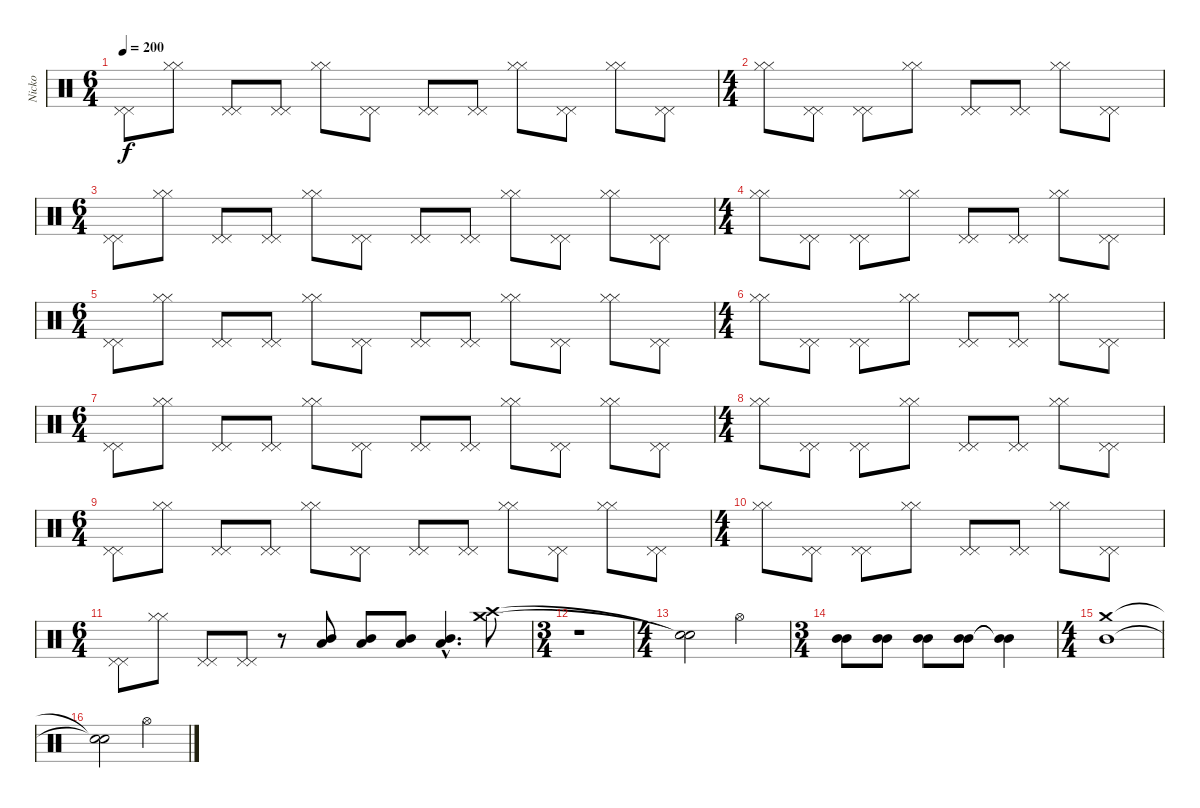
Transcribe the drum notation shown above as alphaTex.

\track ("Nicko" "Nicko") {instrument percussion}
\staff {score}
\articulation defaults
\ts (6 4)
\tempo 200
\clef neutral
\ks c
("Pedal Hi-Hat (hit)" "Pedal Hi-Hat (hit)").8{dy f} ("Hi-Hat (closed)" "Hi-Hat (closed)").8 ("Pedal Hi-Hat (hit)" "Pedal Hi-Hat (hit)").8 ("Pedal Hi-Hat (hit)" "Pedal Hi-Hat (hit)").8 ("Hi-Hat (closed)" "Hi-Hat (closed)").8 ("Pedal Hi-Hat (hit)" "Pedal Hi-Hat (hit)").8 ("Pedal Hi-Hat (hit)" "Pedal Hi-Hat (hit)").8 ("Pedal Hi-Hat (hit)" "Pedal Hi-Hat (hit)").8 ("Hi-Hat (closed)" "Hi-Hat (closed)").8 ("Pedal Hi-Hat (hit)" "Pedal Hi-Hat (hit)").8 ("Hi-Hat (closed)" "Hi-Hat (closed)").8 ("Pedal Hi-Hat (hit)" "Pedal Hi-Hat (hit)").8 |
\ts (4 4)
("Hi-Hat (closed)" "Hi-Hat (closed)").8 ("Pedal Hi-Hat (hit)" "Pedal Hi-Hat (hit)").8 ("Pedal Hi-Hat (hit)" "Pedal Hi-Hat (hit)").8 ("Hi-Hat (closed)" "Hi-Hat (closed)").8 ("Pedal Hi-Hat (hit)" "Pedal Hi-Hat (hit)").8 ("Pedal Hi-Hat (hit)" "Pedal Hi-Hat (hit)").8 ("Hi-Hat (closed)" "Hi-Hat (closed)").8 ("Pedal Hi-Hat (hit)" "Pedal Hi-Hat (hit)").8 |
\ts (6 4)
("Pedal Hi-Hat (hit)" "Pedal Hi-Hat (hit)").8 ("Hi-Hat (closed)" "Hi-Hat (closed)").8 ("Pedal Hi-Hat (hit)" "Pedal Hi-Hat (hit)").8 ("Pedal Hi-Hat (hit)" "Pedal Hi-Hat (hit)").8 ("Hi-Hat (closed)" "Hi-Hat (closed)").8 ("Pedal Hi-Hat (hit)" "Pedal Hi-Hat (hit)").8 ("Pedal Hi-Hat (hit)" "Pedal Hi-Hat (hit)").8 ("Pedal Hi-Hat (hit)" "Pedal Hi-Hat (hit)").8 ("Hi-Hat (closed)" "Hi-Hat (closed)").8 ("Pedal Hi-Hat (hit)" "Pedal Hi-Hat (hit)").8 ("Hi-Hat (closed)" "Hi-Hat (closed)").8 ("Pedal Hi-Hat (hit)" "Pedal Hi-Hat (hit)").8 |
\ts (4 4)
("Hi-Hat (closed)" "Hi-Hat (closed)").8 ("Pedal Hi-Hat (hit)" "Pedal Hi-Hat (hit)").8 ("Pedal Hi-Hat (hit)" "Pedal Hi-Hat (hit)").8 ("Hi-Hat (closed)" "Hi-Hat (closed)").8 ("Pedal Hi-Hat (hit)" "Pedal Hi-Hat (hit)").8 ("Pedal Hi-Hat (hit)" "Pedal Hi-Hat (hit)").8 ("Hi-Hat (closed)" "Hi-Hat (closed)").8 ("Pedal Hi-Hat (hit)" "Pedal Hi-Hat (hit)").8 |
\ts (6 4)
("Pedal Hi-Hat (hit)" "Pedal Hi-Hat (hit)").8 ("Hi-Hat (closed)" "Hi-Hat (closed)").8 ("Pedal Hi-Hat (hit)" "Pedal Hi-Hat (hit)").8 ("Pedal Hi-Hat (hit)" "Pedal Hi-Hat (hit)").8 ("Hi-Hat (closed)" "Hi-Hat (closed)").8 ("Pedal Hi-Hat (hit)" "Pedal Hi-Hat (hit)").8 ("Pedal Hi-Hat (hit)" "Pedal Hi-Hat (hit)").8 ("Pedal Hi-Hat (hit)" "Pedal Hi-Hat (hit)").8 ("Hi-Hat (closed)" "Hi-Hat (closed)").8 ("Pedal Hi-Hat (hit)" "Pedal Hi-Hat (hit)").8 ("Hi-Hat (closed)" "Hi-Hat (closed)").8 ("Pedal Hi-Hat (hit)" "Pedal Hi-Hat (hit)").8 |
\ts (4 4)
("Hi-Hat (closed)" "Hi-Hat (closed)").8 ("Pedal Hi-Hat (hit)" "Pedal Hi-Hat (hit)").8 ("Pedal Hi-Hat (hit)" "Pedal Hi-Hat (hit)").8 ("Hi-Hat (closed)" "Hi-Hat (closed)").8 ("Pedal Hi-Hat (hit)" "Pedal Hi-Hat (hit)").8 ("Pedal Hi-Hat (hit)" "Pedal Hi-Hat (hit)").8 ("Hi-Hat (closed)" "Hi-Hat (closed)").8 ("Pedal Hi-Hat (hit)" "Pedal Hi-Hat (hit)").8 |
\ts (6 4)
("Pedal Hi-Hat (hit)" "Pedal Hi-Hat (hit)").8 ("Hi-Hat (closed)" "Hi-Hat (closed)").8 ("Pedal Hi-Hat (hit)" "Pedal Hi-Hat (hit)").8 ("Pedal Hi-Hat (hit)" "Pedal Hi-Hat (hit)").8 ("Hi-Hat (closed)" "Hi-Hat (closed)").8 ("Pedal Hi-Hat (hit)" "Pedal Hi-Hat (hit)").8 ("Pedal Hi-Hat (hit)" "Pedal Hi-Hat (hit)").8 ("Pedal Hi-Hat (hit)" "Pedal Hi-Hat (hit)").8 ("Hi-Hat (closed)" "Hi-Hat (closed)").8 ("Pedal Hi-Hat (hit)" "Pedal Hi-Hat (hit)").8 ("Hi-Hat (closed)" "Hi-Hat (closed)").8 ("Pedal Hi-Hat (hit)" "Pedal Hi-Hat (hit)").8 |
\ts (4 4)
("Hi-Hat (closed)" "Hi-Hat (closed)").8 ("Pedal Hi-Hat (hit)" "Pedal Hi-Hat (hit)").8 ("Pedal Hi-Hat (hit)" "Pedal Hi-Hat (hit)").8 ("Hi-Hat (closed)" "Hi-Hat (closed)").8 ("Pedal Hi-Hat (hit)" "Pedal Hi-Hat (hit)").8 ("Pedal Hi-Hat (hit)" "Pedal Hi-Hat (hit)").8 ("Hi-Hat (closed)" "Hi-Hat (closed)").8 ("Pedal Hi-Hat (hit)" "Pedal Hi-Hat (hit)").8 |
\ts (6 4)
("Pedal Hi-Hat (hit)" "Pedal Hi-Hat (hit)").8 ("Hi-Hat (closed)" "Hi-Hat (closed)").8 ("Pedal Hi-Hat (hit)" "Pedal Hi-Hat (hit)").8 ("Pedal Hi-Hat (hit)" "Pedal Hi-Hat (hit)").8 ("Hi-Hat (closed)" "Hi-Hat (closed)").8 ("Pedal Hi-Hat (hit)" "Pedal Hi-Hat (hit)").8 ("Pedal Hi-Hat (hit)" "Pedal Hi-Hat (hit)").8 ("Pedal Hi-Hat (hit)" "Pedal Hi-Hat (hit)").8 ("Hi-Hat (closed)" "Hi-Hat (closed)").8 ("Pedal Hi-Hat (hit)" "Pedal Hi-Hat (hit)").8 ("Hi-Hat (closed)" "Hi-Hat (closed)").8 ("Pedal Hi-Hat (hit)" "Pedal Hi-Hat (hit)").8 |
\ts (4 4)
("Hi-Hat (closed)" "Hi-Hat (closed)").8 ("Pedal Hi-Hat (hit)" "Pedal Hi-Hat (hit)").8 ("Pedal Hi-Hat (hit)" "Pedal Hi-Hat (hit)").8 ("Hi-Hat (closed)" "Hi-Hat (closed)").8 ("Pedal Hi-Hat (hit)" "Pedal Hi-Hat (hit)").8 ("Pedal Hi-Hat (hit)" "Pedal Hi-Hat (hit)").8 ("Hi-Hat (closed)" "Hi-Hat (closed)").8 ("Pedal Hi-Hat (hit)" "Pedal Hi-Hat (hit)").8 |
\ts (6 4)
("Pedal Hi-Hat (hit)" "Pedal Hi-Hat (hit)").8 ("Hi-Hat (closed)" "Hi-Hat (closed)").8 ("Pedal Hi-Hat (hit)" "Pedal Hi-Hat (hit)").8 ("Pedal Hi-Hat (hit)" "Pedal Hi-Hat (hit)").8 r.8 ("Mid Tom (hit)" "Low Tom (hit)").8 ("Mid Tom (hit)" "Low Tom (hit)").8 ("Mid Tom (hit)" "Low Tom (hit)").8 ("Mid Tom (hit)"{hac} "Low Tom (hit)"{hac}).4{d} ("Crash high (hit)" "Crash medium (hit)").8 |
\ts (3 4)
r.1 |
\ts (4 4)
("Snare (hit)"{t} "Snare (hit)"{t}).2 "Hi-Hat (open)".2 |
\ts (3 4)
("Mid Tom (hit)" "Mid Tom (hit)").8 ("Mid Tom (hit)" "Mid Tom (hit)").8 ("Mid Tom (hit)" "Mid Tom (hit)").8 ("Mid Tom (hit)" "Mid Tom (hit)").8 ("Mid Tom (hit)"{t} "Mid Tom (hit)"{t}).4 |
\ts (4 4)
("Crash medium (hit)" "Mid Tom (hit)").1 |
("Snare (hit)"{t} "Snare (hit)"{t}).2 "Hi-Hat (open)".2
